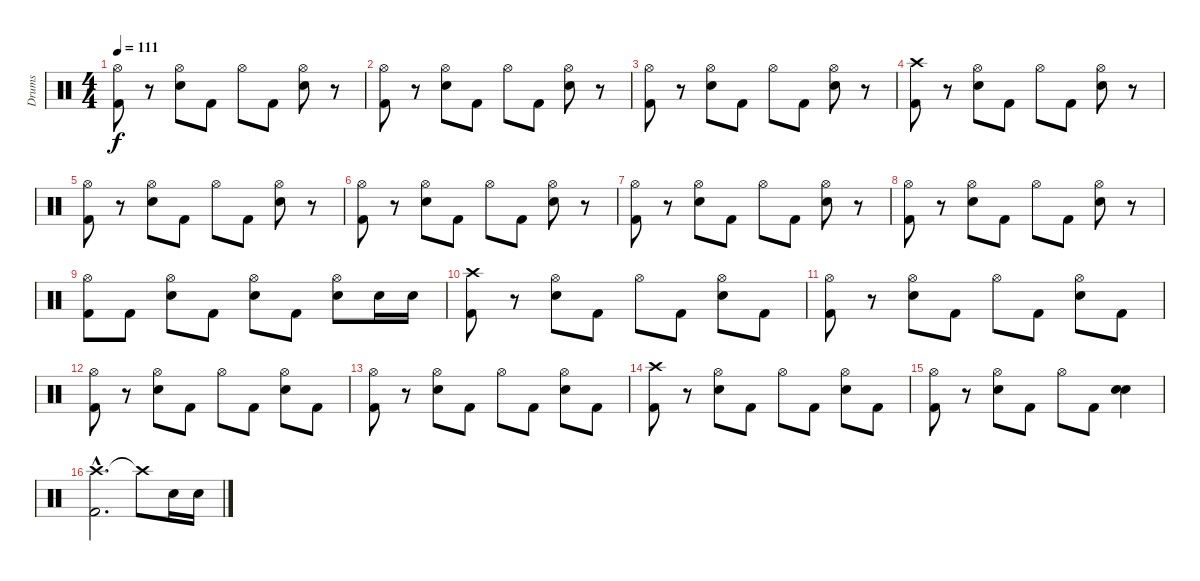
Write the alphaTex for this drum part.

\track ("Drums" "Drums") {instrument percussion}
\staff {score}
\articulation defaults
\ts (4 4)
\tempo 111
\clef neutral
\ks c
("Hi-Hat (open)" "Kick (hit) 2").8{dy f} r.8 ("Hi-Hat (open)" "Snare (hit) 2").8 "Kick (hit) 2".8 "Hi-Hat (open)".8 "Kick (hit) 2".8 ("Hi-Hat (open)" "Snare (hit) 2").8 r.8 |
("Hi-Hat (open)" "Kick (hit) 2").8 r.8 ("Hi-Hat (open)" "Snare (hit) 2").8 "Kick (hit) 2".8 "Hi-Hat (open)".8 "Kick (hit) 2".8 ("Hi-Hat (open)" "Snare (hit) 2").8 r.8 |
("Hi-Hat (open)" "Kick (hit) 2").8 r.8 ("Hi-Hat (open)" "Snare (hit) 2").8 "Kick (hit) 2".8 "Hi-Hat (open)".8 "Kick (hit) 2".8 ("Hi-Hat (open)" "Snare (hit) 2").8 r.8 |
("Crash high (hit)" "Kick (hit) 2").8 r.8 ("Hi-Hat (open)" "Snare (hit) 2").8 "Kick (hit) 2".8 "Hi-Hat (open)".8 "Kick (hit) 2".8 ("Hi-Hat (open)" "Snare (hit) 2").8 r.8 |
("Hi-Hat (open)" "Kick (hit) 2").8 r.8 ("Hi-Hat (open)" "Snare (hit) 2").8 "Kick (hit) 2".8 "Hi-Hat (open)".8 "Kick (hit) 2".8 ("Hi-Hat (open)" "Snare (hit) 2").8 r.8 |
("Hi-Hat (open)" "Kick (hit) 2").8 r.8 ("Hi-Hat (open)" "Snare (hit) 2").8 "Kick (hit) 2".8 "Hi-Hat (open)".8 "Kick (hit) 2".8 ("Hi-Hat (open)" "Snare (hit) 2").8 r.8 |
("Hi-Hat (open)" "Kick (hit) 2").8 r.8 ("Hi-Hat (open)" "Snare (hit) 2").8 "Kick (hit) 2".8 "Hi-Hat (open)".8 "Kick (hit) 2".8 ("Hi-Hat (open)" "Snare (hit) 2").8 r.8 |
("Hi-Hat (open)" "Kick (hit) 2").8 r.8 ("Hi-Hat (open)" "Snare (hit) 2").8 "Kick (hit) 2".8 "Hi-Hat (open)".8 "Kick (hit) 2".8 ("Hi-Hat (open)" "Snare (hit) 2").8 r.8 |
("Hi-Hat (open)" "Kick (hit) 2").8 "Kick (hit) 2".8 ("Hi-Hat (open)" "Snare (hit) 2").8 "Kick (hit) 2".8 ("Hi-Hat (open)" "Snare (hit) 2").8 "Kick (hit) 2".8 ("Hi-Hat (open)" "Snare (hit) 2").8 "Snare (hit) 2".16 "Snare (hit) 2".16 |
("Crash high (hit)" "Kick (hit) 2").8 r.8 ("Hi-Hat (open)" "Snare (hit) 2").8 "Kick (hit) 2".8 "Hi-Hat (open)".8 "Kick (hit) 2".8 ("Hi-Hat (open)" "Snare (hit) 2").8 "Kick (hit) 2".8 |
("Hi-Hat (open)" "Kick (hit) 2").8 r.8 ("Hi-Hat (open)" "Snare (hit) 2").8 "Kick (hit) 2".8 "Hi-Hat (open)".8 "Kick (hit) 2".8 ("Hi-Hat (open)" "Snare (hit) 2").8 "Kick (hit) 2".8 |
("Hi-Hat (open)" "Kick (hit) 2").8 r.8 ("Hi-Hat (open)" "Snare (hit) 2").8 "Kick (hit) 2".8 "Hi-Hat (open)".8 "Kick (hit) 2".8 ("Hi-Hat (open)" "Snare (hit) 2").8 "Kick (hit) 2".8 |
("Hi-Hat (open)" "Kick (hit) 2").8 r.8 ("Hi-Hat (open)" "Snare (hit) 2").8 "Kick (hit) 2".8 "Hi-Hat (open)".8 "Kick (hit) 2".8 ("Hi-Hat (open)" "Snare (hit) 2").8 "Kick (hit) 2".8 |
("Crash high (hit)" "Kick (hit) 2").8 r.8 ("Hi-Hat (open)" "Snare (hit) 2").8 "Kick (hit) 2".8 "Hi-Hat (open)".8 "Kick (hit) 2".8 ("Hi-Hat (open)" "Snare (hit) 2").8 "Kick (hit) 2".8 |
("Hi-Hat (open)" "Kick (hit) 2").8 r.8 ("Hi-Hat (open)" "Snare (hit) 2").8 "Kick (hit) 2".8 "Hi-Hat (open)".8 "Kick (hit) 2".8 ("Snare (hit) 2" "Snare (hit) 2").4 |
("Crash high (hit)"{hac} "Kick (hit) 2"{hac}).2{d} "Crash high (hit)"{t}.8 "Snare (hit) 2".16 "Snare (hit) 2".16
